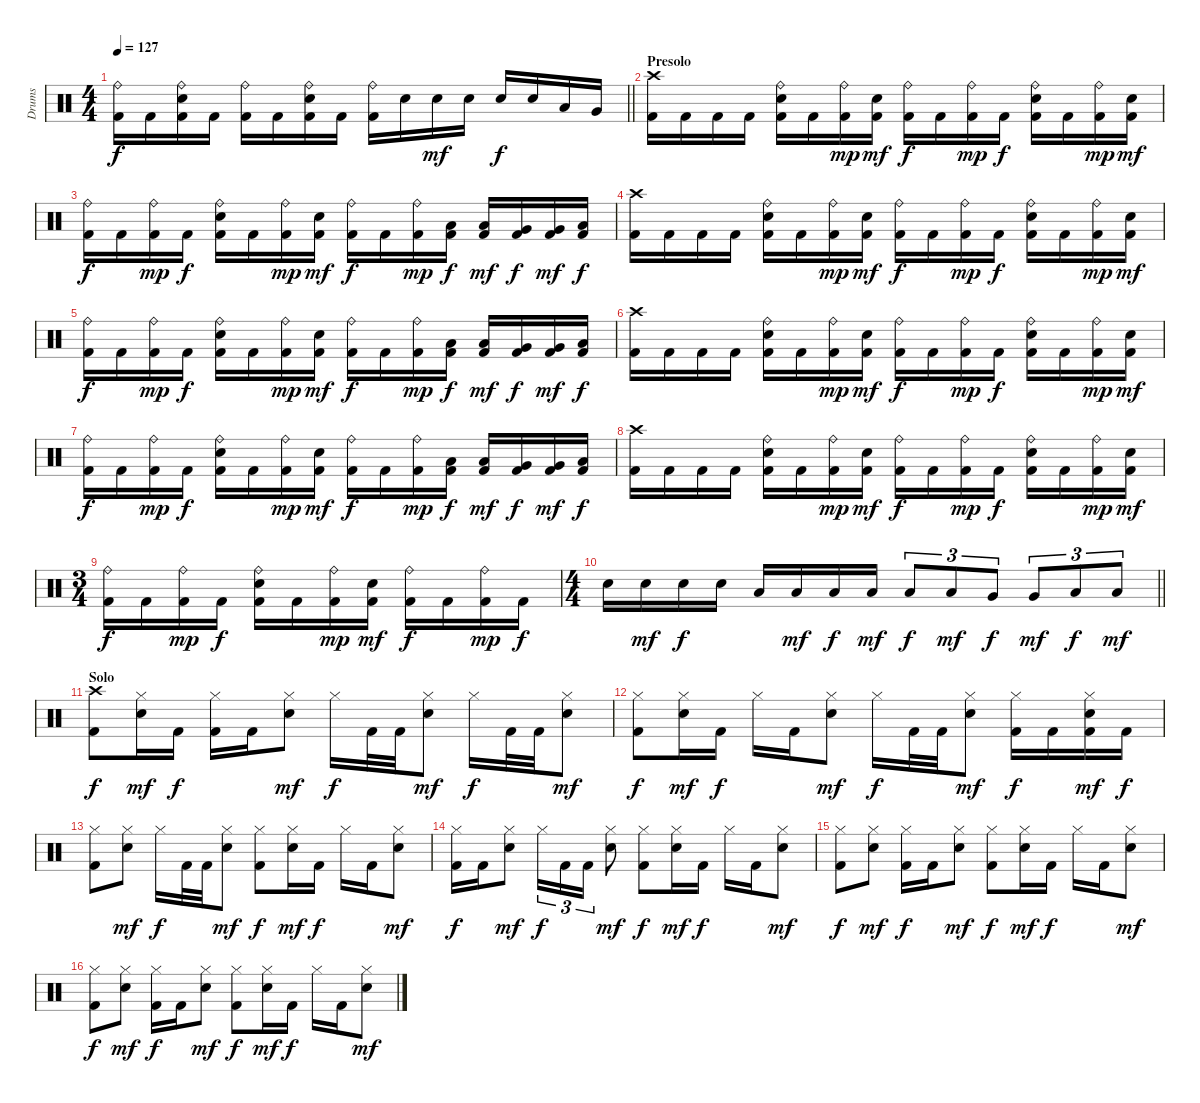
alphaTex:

\track ("Drums" "Drums") {instrument percussion}
\staff {score}
\articulation defaults
\ts (4 4)
\tempo 127
\clef neutral
\barLineRight lightlight
\ks c
("Kick (hit) 2" "Ride (bell)").16{dy f} "Kick (hit) 2".16 ("Kick (hit) 2" "Ride (bell)" "Electric Snare (hit)").16 "Kick (hit) 2".16 ("Kick (hit) 2" "Ride (bell)").16 "Kick (hit) 2".16 ("Kick (hit) 2" "Ride (bell)" "Electric Snare (hit)").16 "Kick (hit) 2".16 ("Kick (hit) 2" "Ride (bell)").16 "Electric Snare (hit)".16 "Electric Snare (hit)".16{dy mf} "Electric Snare (hit)".16 "Electric Snare (hit)".16{dy f} "Electric Snare (hit)".16 "Low Tom (hit)".16 "Very Low Tom (hit)".16 |
\section ("" "Presolo")
("Kick (hit) 2" "Crash high (hit)").16 "Kick (hit) 2".16 "Kick (hit) 2".16 "Kick (hit) 2".16 ("Kick (hit) 2" "Ride (bell)" "Electric Snare (hit)").16 "Kick (hit) 2".16 ("Kick (hit) 2" "Ride (bell)").16{dy mp} ("Kick (hit) 2" "Electric Snare (hit)").16{dy mf} ("Kick (hit) 2" "Ride (bell)").16{dy f} "Kick (hit) 2".16 ("Kick (hit) 2" "Ride (bell)").16{dy mp} "Kick (hit) 2".16{dy f} ("Kick (hit) 2" "Ride (bell)" "Electric Snare (hit)").16 "Kick (hit) 2".16 ("Kick (hit) 2" "Ride (bell)").16{dy mp} ("Kick (hit) 2" "Electric Snare (hit)").16{dy mf} |
("Kick (hit) 2" "Ride (bell)").16{dy f} "Kick (hit) 2".16 ("Kick (hit) 2" "Ride (bell)").16{dy mp} "Kick (hit) 2".16{dy f} ("Kick (hit) 2" "Ride (bell)" "Electric Snare (hit)").16 "Kick (hit) 2".16 ("Kick (hit) 2" "Ride (bell)").16{dy mp} ("Kick (hit) 2" "Electric Snare (hit)").16{dy mf} ("Kick (hit) 2" "Ride (bell)").16{dy f} "Kick (hit) 2".16 ("Kick (hit) 2" "Ride (bell)").16{dy mp} ("Kick (hit) 2" "Low Tom (hit)").16{dy f} ("Kick (hit) 2" "Low Tom (hit)").16{dy mf} ("Kick (hit) 2" "Very Low Tom (hit)").16{dy f} ("Kick (hit) 2" "Very Low Tom (hit)").16{dy mf} ("Kick (hit) 2" "Low Floor Tom (hit)").16{dy f} |
("Kick (hit) 2" "Crash high (hit)").16 "Kick (hit) 2".16 "Kick (hit) 2".16 "Kick (hit) 2".16 ("Kick (hit) 2" "Ride (bell)" "Electric Snare (hit)").16 "Kick (hit) 2".16 ("Kick (hit) 2" "Ride (bell)").16{dy mp} ("Kick (hit) 2" "Electric Snare (hit)").16{dy mf} ("Kick (hit) 2" "Ride (bell)").16{dy f} "Kick (hit) 2".16 ("Kick (hit) 2" "Ride (bell)").16{dy mp} "Kick (hit) 2".16{dy f} ("Kick (hit) 2" "Ride (bell)" "Electric Snare (hit)").16 "Kick (hit) 2".16 ("Kick (hit) 2" "Ride (bell)").16{dy mp} ("Kick (hit) 2" "Electric Snare (hit)").16{dy mf} |
("Kick (hit) 2" "Ride (bell)").16{dy f} "Kick (hit) 2".16 ("Kick (hit) 2" "Ride (bell)").16{dy mp} "Kick (hit) 2".16{dy f} ("Kick (hit) 2" "Ride (bell)" "Electric Snare (hit)").16 "Kick (hit) 2".16 ("Kick (hit) 2" "Ride (bell)").16{dy mp} ("Kick (hit) 2" "Electric Snare (hit)").16{dy mf} ("Kick (hit) 2" "Ride (bell)").16{dy f} "Kick (hit) 2".16 ("Kick (hit) 2" "Ride (bell)").16{dy mp} ("Kick (hit) 2" "Low Tom (hit)").16{dy f} ("Kick (hit) 2" "Low Tom (hit)").16{dy mf} ("Kick (hit) 2" "Very Low Tom (hit)").16{dy f} ("Kick (hit) 2" "Very Low Tom (hit)").16{dy mf} ("Kick (hit) 2" "Low Floor Tom (hit)").16{dy f} |
("Kick (hit) 2" "Crash high (hit)").16 "Kick (hit) 2".16 "Kick (hit) 2".16 "Kick (hit) 2".16 ("Kick (hit) 2" "Ride (bell)" "Electric Snare (hit)").16 "Kick (hit) 2".16 ("Kick (hit) 2" "Ride (bell)").16{dy mp} ("Kick (hit) 2" "Electric Snare (hit)").16{dy mf} ("Kick (hit) 2" "Ride (bell)").16{dy f} "Kick (hit) 2".16 ("Kick (hit) 2" "Ride (bell)").16{dy mp} "Kick (hit) 2".16{dy f} ("Kick (hit) 2" "Ride (bell)" "Electric Snare (hit)").16 "Kick (hit) 2".16 ("Kick (hit) 2" "Ride (bell)").16{dy mp} ("Kick (hit) 2" "Electric Snare (hit)").16{dy mf} |
("Kick (hit) 2" "Ride (bell)").16{dy f} "Kick (hit) 2".16 ("Kick (hit) 2" "Ride (bell)").16{dy mp} "Kick (hit) 2".16{dy f} ("Kick (hit) 2" "Ride (bell)" "Electric Snare (hit)").16 "Kick (hit) 2".16 ("Kick (hit) 2" "Ride (bell)").16{dy mp} ("Kick (hit) 2" "Electric Snare (hit)").16{dy mf} ("Kick (hit) 2" "Ride (bell)").16{dy f} "Kick (hit) 2".16 ("Kick (hit) 2" "Ride (bell)").16{dy mp} ("Kick (hit) 2" "Low Tom (hit)").16{dy f} ("Kick (hit) 2" "Low Tom (hit)").16{dy mf} ("Kick (hit) 2" "Very Low Tom (hit)").16{dy f} ("Kick (hit) 2" "Very Low Tom (hit)").16{dy mf} ("Kick (hit) 2" "Low Floor Tom (hit)").16{dy f} |
("Kick (hit) 2" "Crash high (hit)").16 "Kick (hit) 2".16 "Kick (hit) 2".16 "Kick (hit) 2".16 ("Kick (hit) 2" "Ride (bell)" "Electric Snare (hit)").16 "Kick (hit) 2".16 ("Kick (hit) 2" "Ride (bell)").16{dy mp} ("Kick (hit) 2" "Electric Snare (hit)").16{dy mf} ("Kick (hit) 2" "Ride (bell)").16{dy f} "Kick (hit) 2".16 ("Kick (hit) 2" "Ride (bell)").16{dy mp} "Kick (hit) 2".16{dy f} ("Kick (hit) 2" "Ride (bell)" "Electric Snare (hit)").16 "Kick (hit) 2".16 ("Kick (hit) 2" "Ride (bell)").16{dy mp} ("Kick (hit) 2" "Electric Snare (hit)").16{dy mf} |
\ts (3 4)
("Kick (hit) 2" "Ride (bell)").16{dy f} "Kick (hit) 2".16 ("Kick (hit) 2" "Ride (bell)").16{dy mp} "Kick (hit) 2".16{dy f} ("Kick (hit) 2" "Ride (bell)" "Electric Snare (hit)").16 "Kick (hit) 2".16 ("Kick (hit) 2" "Ride (bell)").16{dy mp} ("Kick (hit) 2" "Electric Snare (hit)").16{dy mf} ("Kick (hit) 2" "Ride (bell)").16{dy f} "Kick (hit) 2".16 ("Kick (hit) 2" "Ride (bell)").16{dy mp} "Kick (hit) 2".16{dy f} |
\ts (4 4)
\barLineRight lightlight "Electric Snare (hit)".16 "Electric Snare (hit)".16{dy mf} "Electric Snare (hit)".16{dy f} "Electric Snare (hit)".16 "Low Tom (hit)".16 "Low Tom (hit)".16{dy mf} "Low Tom (hit)".16{dy f} "Low Tom (hit)".16{dy mf} "Low Tom (hit)".8{tu (3 2) dy f} "Low Tom (hit)".8{tu (3 2) dy mf} "Very Low Tom (hit)".8{tu (3 2) dy f} "Very Low Tom (hit)".8{tu (3 2) dy mf} "Low Floor Tom (hit)".8{tu (3 2) dy f} "Low Floor Tom (hit)".8{tu (3 2) dy mf}
|
\section ("" "Solo")
("Kick (hit) 2" "Crash high (hit)").8{dy f} ("Hi-Hat (closed)" "Electric Snare (hit)").16{dy mf} "Kick (hit) 2".16{dy f} ("Kick (hit) 2" "Hi-Hat (closed)").16 "Kick (hit) 2".16 ("Hi-Hat (closed)" "Electric Snare (hit)").8{dy mf} "Hi-Hat (closed)".16{dy f} "Kick (hit) 2".32 "Kick (hit) 2".32 ("Hi-Hat (closed)" "Electric Snare (hit)").8{dy mf} "Hi-Hat (closed)".16{dy f} "Kick (hit) 2".32 "Kick (hit) 2".32 ("Hi-Hat (closed)" "Electric Snare (hit)").8{dy mf} |
("Kick (hit) 2" "Hi-Hat (closed)").8{dy f} ("Hi-Hat (closed)" "Electric Snare (hit)").16{dy mf} "Kick (hit) 2".16{dy f} "Hi-Hat (closed)".16 "Kick (hit) 2".16 ("Hi-Hat (closed)" "Electric Snare (hit)").8{dy mf} "Hi-Hat (closed)".16{dy f} "Kick (hit) 2".32 "Kick (hit) 2".32 ("Hi-Hat (closed)" "Electric Snare (hit)").8{dy mf} ("Kick (hit) 2" "Hi-Hat (closed)").16{dy f} "Kick (hit) 2".16 ("Kick (hit) 2" "Hi-Hat (closed)" "Electric Snare (hit)").16{dy mf} "Kick (hit) 2".16{dy f} |
("Kick (hit) 2" "Hi-Hat (closed)").8 ("Hi-Hat (closed)" "Electric Snare (hit)").8{dy mf} "Hi-Hat (closed)".16{dy f} "Kick (hit) 2".32 "Kick (hit) 2".32 ("Hi-Hat (closed)" "Electric Snare (hit)").8{dy mf} ("Kick (hit) 2" "Hi-Hat (closed)").8{dy f} ("Hi-Hat (closed)" "Electric Snare (hit)").16{dy mf} "Kick (hit) 2".16{dy f} "Hi-Hat (closed)".16 "Kick (hit) 2".16 ("Hi-Hat (closed)" "Electric Snare (hit)").8{dy mf} |
("Kick (hit) 2" "Hi-Hat (closed)").16{dy f} "Kick (hit) 2".16 ("Hi-Hat (closed)" "Electric Snare (hit)").8{dy mf} "Hi-Hat (closed)".16{tu (3 2) dy f} "Kick (hit) 2".16{tu (3 2)} "Kick (hit) 2".16{tu (3 2)} ("Hi-Hat (closed)" "Electric Snare (hit)").8{dy mf} ("Kick (hit) 2" "Hi-Hat (closed)").8{dy f} ("Hi-Hat (closed)" "Electric Snare (hit)").16{dy mf} "Kick (hit) 2".16{dy f} "Hi-Hat (closed)".16 "Kick (hit) 2".16 ("Hi-Hat (closed)" "Electric Snare (hit)").8{dy mf} |
("Kick (hit) 2" "Hi-Hat (closed)").8{dy f} ("Hi-Hat (closed)" "Electric Snare (hit)").8{dy mf} ("Kick (hit) 2" "Hi-Hat (closed)").16{dy f} "Kick (hit) 2".16 ("Hi-Hat (closed)" "Electric Snare (hit)").8{dy mf} ("Kick (hit) 2" "Hi-Hat (closed)").8{dy f} ("Hi-Hat (closed)" "Electric Snare (hit)").16{dy mf} "Kick (hit) 2".16{dy f} "Hi-Hat (closed)".16 "Kick (hit) 2".16 ("Hi-Hat (closed)" "Electric Snare (hit)").8{dy mf} |
("Kick (hit) 2" "Hi-Hat (closed)").8{dy f} ("Hi-Hat (closed)" "Electric Snare (hit)").8{dy mf} ("Kick (hit) 2" "Hi-Hat (closed)").16{dy f} "Kick (hit) 2".16 ("Hi-Hat (closed)" "Electric Snare (hit)").8{dy mf} ("Kick (hit) 2" "Hi-Hat (closed)").8{dy f} ("Hi-Hat (closed)" "Electric Snare (hit)").16{dy mf} "Kick (hit) 2".16{dy f} "Hi-Hat (closed)".16 "Kick (hit) 2".16 ("Hi-Hat (closed)" "Electric Snare (hit)").8{dy mf}
